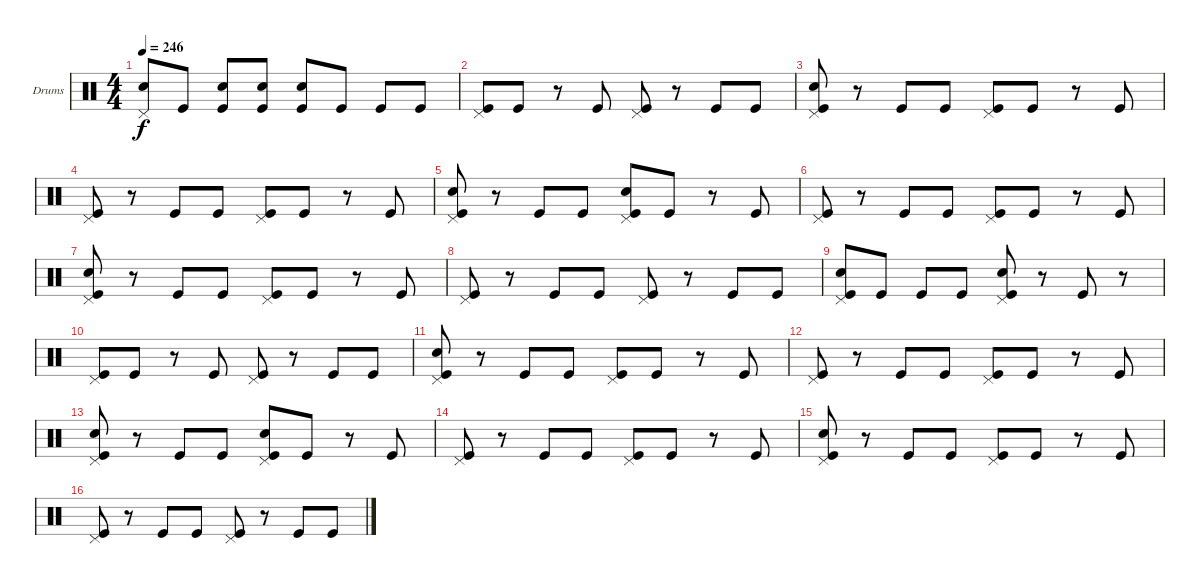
\bracketExtendMode groupsimilarinstruments
\firstSystemTrackNameOrientation horizontal
\otherSystemsTrackNameOrientation horizontal
\track ("Drumkit" "Drums") {instrument percussion}
\staff {score}
\articulation defaults
\ts (4 4)
\tempo 246
\clef neutral
\ks c
("Pedal Hi-Hat (hit)" "Snare (hit) 2").8{dy f} "Kick (hit)".8 ("Snare (hit) 2" "Kick (hit)").8 ("Snare (hit) 2" "Kick (hit)").8 ("Kick (hit)" "Snare (hit) 2").8 "Kick (hit)".8 "Kick (hit)".8 "Kick (hit)".8 |
("Pedal Hi-Hat (hit)" "Kick (hit)").8 "Kick (hit)".8 r.8 "Kick (hit)".8 ("Kick (hit)" "Pedal Hi-Hat (hit)").8 r.8 "Kick (hit)".8 "Kick (hit)".8 |
("Kick (hit)" "Snare (hit) 2" "Pedal Hi-Hat (hit)").8 r.8 "Kick (hit)".8 "Kick (hit)".8 ("Kick (hit)" "Pedal Hi-Hat (hit)").8 "Kick (hit)".8 r.8 "Kick (hit)".8 |
("Pedal Hi-Hat (hit)" "Kick (hit)").8 r.8 "Kick (hit)".8 "Kick (hit)".8 ("Kick (hit)" "Pedal Hi-Hat (hit)").8 "Kick (hit)".8 r.8 "Kick (hit)".8 |
("Kick (hit)" "Snare (hit) 2" "Pedal Hi-Hat (hit)").8 r.8 "Kick (hit)".8 "Kick (hit)".8 ("Snare (hit) 2" "Pedal Hi-Hat (hit)" "Kick (hit)").8 "Kick (hit)".8 r.8 "Kick (hit)".8 |
("Kick (hit)" "Pedal Hi-Hat (hit)").8 r.8 "Kick (hit)".8 "Kick (hit)".8 ("Kick (hit)" "Pedal Hi-Hat (hit)").8 "Kick (hit)".8 r.8 "Kick (hit)".8 |
("Kick (hit)" "Snare (hit) 2" "Pedal Hi-Hat (hit)").8 r.8 "Kick (hit)".8 "Kick (hit)".8 ("Pedal Hi-Hat (hit)" "Kick (hit)").8 "Kick (hit)".8 r.8 "Kick (hit)".8 |
("Pedal Hi-Hat (hit)" "Kick (hit)").8 r.8 "Kick (hit)".8 "Kick (hit)".8 ("Kick (hit)" "Pedal Hi-Hat (hit)").8 r.8 "Kick (hit)".8 "Kick (hit)".8 |
("Kick (hit)" "Snare (hit) 2" "Pedal Hi-Hat (hit)").8 "Kick (hit)".8 "Kick (hit)".8 "Kick (hit)".8 ("Snare (hit) 2" "Pedal Hi-Hat (hit)" "Kick (hit)").8 r.8 "Kick (hit)".8 r.8 |
("Pedal Hi-Hat (hit)" "Kick (hit)").8 "Kick (hit)".8 r.8 "Kick (hit)".8 ("Kick (hit)" "Pedal Hi-Hat (hit)").8 r.8 "Kick (hit)".8 "Kick (hit)".8 |
("Kick (hit)" "Snare (hit) 2" "Pedal Hi-Hat (hit)").8 r.8 "Kick (hit)".8 "Kick (hit)".8 ("Kick (hit)" "Pedal Hi-Hat (hit)").8 "Kick (hit)".8 r.8 "Kick (hit)".8 |
("Pedal Hi-Hat (hit)" "Kick (hit)").8 r.8 "Kick (hit)".8 "Kick (hit)".8 ("Kick (hit)" "Pedal Hi-Hat (hit)").8 "Kick (hit)".8 r.8 "Kick (hit)".8 |
("Kick (hit)" "Snare (hit) 2" "Pedal Hi-Hat (hit)").8 r.8 "Kick (hit)".8 "Kick (hit)".8 ("Snare (hit) 2" "Pedal Hi-Hat (hit)" "Kick (hit)").8 "Kick (hit)".8 r.8 "Kick (hit)".8 |
("Kick (hit)" "Pedal Hi-Hat (hit)").8 r.8 "Kick (hit)".8 "Kick (hit)".8 ("Kick (hit)" "Pedal Hi-Hat (hit)").8 "Kick (hit)".8 r.8 "Kick (hit)".8 |
("Kick (hit)" "Snare (hit) 2" "Pedal Hi-Hat (hit)").8 r.8 "Kick (hit)".8 "Kick (hit)".8 ("Pedal Hi-Hat (hit)" "Kick (hit)").8 "Kick (hit)".8 r.8 "Kick (hit)".8 |
("Pedal Hi-Hat (hit)" "Kick (hit)").8 r.8 "Kick (hit)".8 "Kick (hit)".8 ("Kick (hit)" "Pedal Hi-Hat (hit)").8 r.8 "Kick (hit)".8 "Kick (hit)".8
